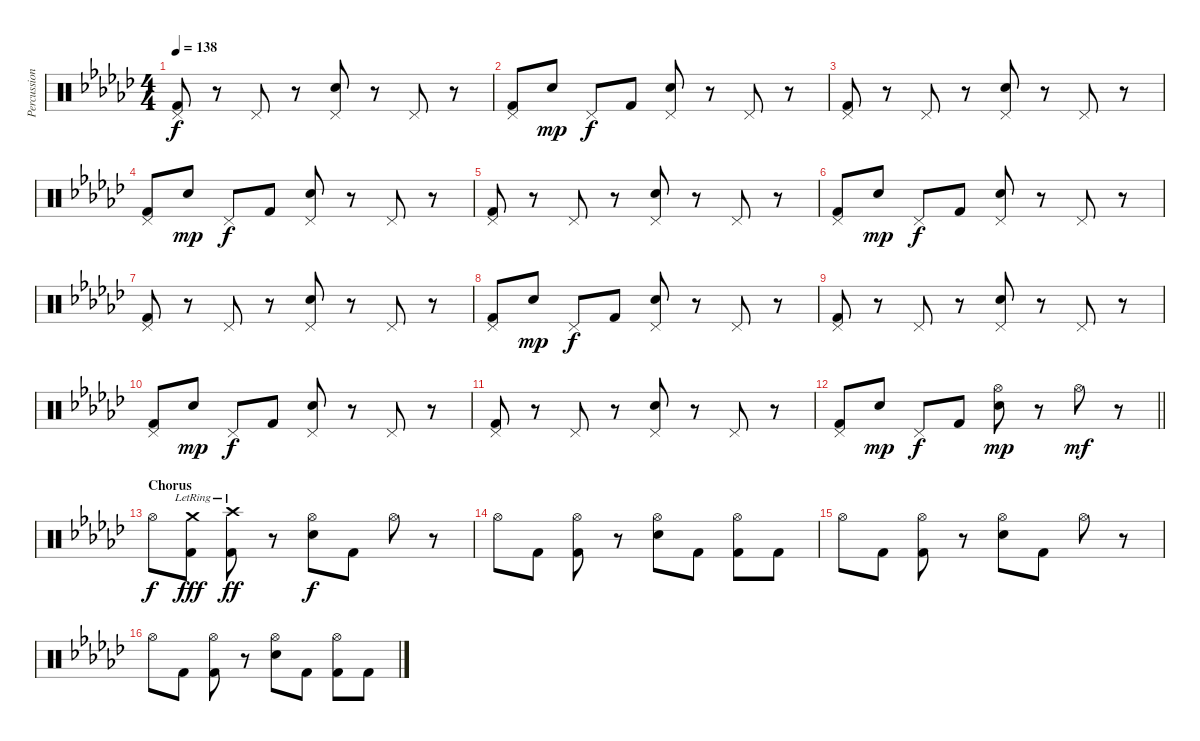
\track ("Percussion" "Percussion") {instrument percussion}
\staff {score}
\articulation defaults
\ts (4 4)
\tempo 138
\clef neutral
\ks gb
("Pedal Hi-Hat (hit)" "Kick (hit) 2").8{dy f} r.8 "Pedal Hi-Hat (hit)".8 r.8 ("Pedal Hi-Hat (hit)" "Electric Snare (hit)").8 r.8 "Pedal Hi-Hat (hit)".8 r.8 |
("Pedal Hi-Hat (hit)" "Kick (hit) 2").8 "Electric Snare (hit)".8{dy mp} "Pedal Hi-Hat (hit)".8{dy f} "Kick (hit) 2".8 ("Pedal Hi-Hat (hit)" "Electric Snare (hit)").8 r.8 "Pedal Hi-Hat (hit)".8 r.8 |
("Pedal Hi-Hat (hit)" "Kick (hit) 2").8 r.8 "Pedal Hi-Hat (hit)".8 r.8 ("Pedal Hi-Hat (hit)" "Electric Snare (hit)").8 r.8 "Pedal Hi-Hat (hit)".8 r.8 |
("Pedal Hi-Hat (hit)" "Kick (hit) 2").8 "Electric Snare (hit)".8{dy mp} "Pedal Hi-Hat (hit)".8{dy f} "Kick (hit) 2".8 ("Pedal Hi-Hat (hit)" "Electric Snare (hit)").8 r.8 "Pedal Hi-Hat (hit)".8 r.8 |
("Pedal Hi-Hat (hit)" "Kick (hit) 2").8 r.8 "Pedal Hi-Hat (hit)".8 r.8 ("Pedal Hi-Hat (hit)" "Electric Snare (hit)").8 r.8 "Pedal Hi-Hat (hit)".8 r.8 |
("Pedal Hi-Hat (hit)" "Kick (hit) 2").8 "Electric Snare (hit)".8{dy mp} "Pedal Hi-Hat (hit)".8{dy f} "Kick (hit) 2".8 ("Pedal Hi-Hat (hit)" "Electric Snare (hit)").8 r.8 "Pedal Hi-Hat (hit)".8 r.8 |
("Pedal Hi-Hat (hit)" "Kick (hit) 2").8 r.8 "Pedal Hi-Hat (hit)".8 r.8 ("Pedal Hi-Hat (hit)" "Electric Snare (hit)").8 r.8 "Pedal Hi-Hat (hit)".8 r.8 |
("Pedal Hi-Hat (hit)" "Kick (hit) 2").8 "Electric Snare (hit)".8{dy mp} "Pedal Hi-Hat (hit)".8{dy f} "Kick (hit) 2".8 ("Pedal Hi-Hat (hit)" "Electric Snare (hit)").8 r.8 "Pedal Hi-Hat (hit)".8 r.8 |
("Pedal Hi-Hat (hit)" "Kick (hit) 2").8 r.8 "Pedal Hi-Hat (hit)".8 r.8 ("Pedal Hi-Hat (hit)" "Electric Snare (hit)").8 r.8 "Pedal Hi-Hat (hit)".8 r.8 |
("Pedal Hi-Hat (hit)" "Kick (hit) 2").8 "Electric Snare (hit)".8{dy mp} "Pedal Hi-Hat (hit)".8{dy f} "Kick (hit) 2".8 ("Pedal Hi-Hat (hit)" "Electric Snare (hit)").8 r.8 "Pedal Hi-Hat (hit)".8 r.8 |
("Pedal Hi-Hat (hit)" "Kick (hit) 2").8 r.8 "Pedal Hi-Hat (hit)".8 r.8 ("Pedal Hi-Hat (hit)" "Electric Snare (hit)").8 r.8 "Pedal Hi-Hat (hit)".8 r.8 |
\barLineRight lightlight
("Pedal Hi-Hat (hit)" "Kick (hit) 2").8 "Electric Snare (hit)".8{dy mp} "Pedal Hi-Hat (hit)".8{dy f} "Kick (hit) 2".8 ("Hi-Hat (open)" "Electric Snare (hit)").8{dy mp} r.8 "Hi-Hat (open)".8{dy mf} r.8 |
\section ("" "Chorus")
"Hi-Hat (open)".8{dy f} ("Crash medium (hit)"{lr} "Kick (hit) 2").8{dy fff} ("Crash high (hit)"{lr} "Kick (hit) 2").8{dy ff} r.8 ("Hi-Hat (open)" "Electric Snare (hit)").8{dy f} "Kick (hit) 2".8 "Hi-Hat (open)".8 r.8 |
"Hi-Hat (open)".8 "Kick (hit) 2".8 ("Hi-Hat (open)" "Kick (hit) 2").8 r.8 ("Hi-Hat (open)" "Electric Snare (hit)").8 "Kick (hit) 2".8 ("Hi-Hat (open)" "Kick (hit) 2").8 "Kick (hit) 2".8 |
"Hi-Hat (open)".8 "Kick (hit) 2".8 ("Hi-Hat (open)" "Kick (hit) 2").8 r.8 ("Hi-Hat (open)" "Electric Snare (hit)").8 "Kick (hit) 2".8 "Hi-Hat (open)".8 r.8 |
"Hi-Hat (open)".8 "Kick (hit) 2".8 ("Hi-Hat (open)" "Kick (hit) 2").8 r.8 ("Hi-Hat (open)" "Electric Snare (hit)").8 "Kick (hit) 2".8 ("Hi-Hat (open)" "Kick (hit) 2").8 "Kick (hit) 2".8
